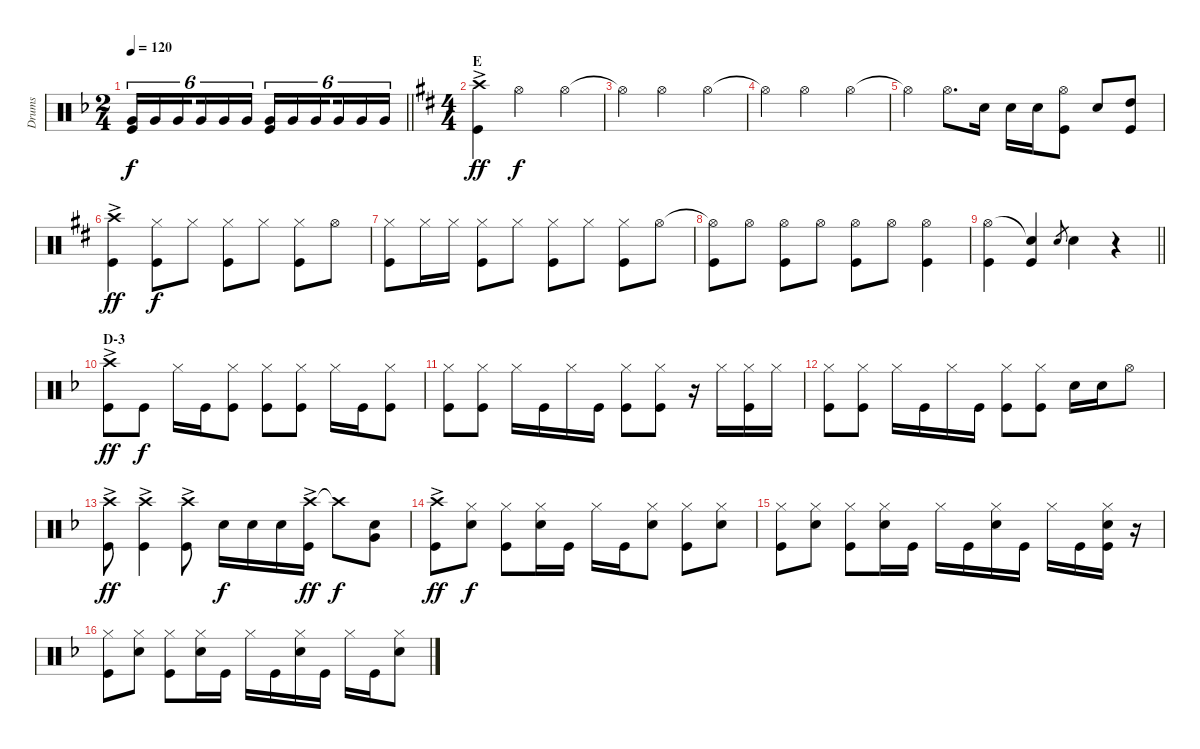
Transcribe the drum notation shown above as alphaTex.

\track ("Drums" "Drums") {instrument percussion}
\staff {score}
\articulation defaults
\ts (2 4)
\tempo 120
\clef neutral
\barLineRight lightlight
\ks f
("Kick (hit)" "Very Low Tom (hit)").16{tu (6 4) dy f} "Very Low Tom (hit)".16{tu (6 4)} "Very Low Tom (hit)".16{tu (6 4) beam splitsecondary} "Very Low Tom (hit)".16{tu (6 4)} "Very Low Tom (hit)".16{tu (6 4)} "Very Low Tom (hit)".16{tu (6 4)} ("Kick (hit)" "Very Low Tom (hit)").16{tu (6 4)} "Very Low Tom (hit)".16{tu (6 4)} "Very Low Tom (hit)".16{tu (6 4) beam splitsecondary} "Very Low Tom (hit)".16{tu (6 4)} "Very Low Tom (hit)".16{tu (6 4)} "Very Low Tom (hit)".16{tu (6 4)} |
\ts (4 4)
\section ("" "E")
\ks d
("Kick (hit)" "Crash high (hit)"{ac}).4{dy ff} "Hi-Hat (open)".2{dy f} "Hi-Hat (open)".4 |
"Hi-Hat (open)"{t}.4 "Hi-Hat (open)".2 "Hi-Hat (open)".4 |
"Hi-Hat (open)"{t}.4 "Hi-Hat (open)".2 "Hi-Hat (open)".4 |
"Hi-Hat (open)"{t}.4 "Hi-Hat (open)".8{d} "Snare (hit) 2".16 "Snare (hit) 2".16 "Snare (hit) 2".16 ("Hi-Hat (open)" "Kick (hit)").8 "Snare (hit) 2".8 ("High Tom (hit)" "Kick (hit)").8 |
("Crash high (hit)"{ac} "Kick (hit)").4{dy ff} ("Hi-Hat (closed)" "Kick (hit)").8{dy f} "Hi-Hat (closed)".8 ("Hi-Hat (closed)" "Kick (hit)").8 "Hi-Hat (closed)".8 ("Hi-Hat (closed)" "Kick (hit)").8 "Hi-Hat (open)".8 |
("Hi-Hat (closed)" "Kick (hit)").8 "Hi-Hat (closed)".16 "Hi-Hat (closed)".16 ("Hi-Hat (closed)" "Kick (hit)").8 "Hi-Hat (closed)".8 ("Hi-Hat (closed)" "Kick (hit)").8 "Hi-Hat (closed)".8 ("Hi-Hat (closed)" "Kick (hit)").8 "Hi-Hat (open)".8 |
("Hi-Hat (open)"{t} "Kick (hit)").8 "Hi-Hat (open)".8 ("Kick (hit)" "Hi-Hat (open)").8 "Hi-Hat (open)".8 ("Hi-Hat (open)" "Kick (hit)").8 "Hi-Hat (open)".8 ("Hi-Hat (open)" "Kick (hit)").4 |
\barLineRight lightlight
("Hi-Hat (open)" "Kick (hit)").4 ("Snare (hit)"{t} "Kick (hit)").4 "Snare (hit) 2".8{gr} "Snare (hit) 2".4 r.4 |
\section ("" "D-3")
\ks f
("Crash high (hit)"{ac} "Kick (hit)").8{dy ff} "Kick (hit)".8{dy f} "Hi-Hat (closed)".16 "Kick (hit)".16 ("Kick (hit)" "Hi-Hat (closed)").8 ("Hi-Hat (closed)" "Kick (hit)").8 ("Hi-Hat (closed)" "Kick (hit)").8 "Hi-Hat (closed)".16 "Kick (hit)".16 ("Hi-Hat (closed)" "Kick (hit)").8 |
("Hi-Hat (closed)" "Kick (hit)").8 ("Hi-Hat (closed)" "Kick (hit)").8 "Hi-Hat (closed)".16 "Kick (hit)".16 "Hi-Hat (closed)".16 "Kick (hit)".16 ("Hi-Hat (closed)" "Kick (hit)").8 ("Hi-Hat (closed)" "Kick (hit)").8 r.16 "Hi-Hat (closed)".16 ("Hi-Hat (closed)" "Kick (hit)").16 "Hi-Hat (closed)".16 |
("Hi-Hat (closed)" "Kick (hit)").8 ("Hi-Hat (closed)" "Kick (hit)").8 "Hi-Hat (closed)".16 "Kick (hit)".16 "Hi-Hat (closed)".16 "Kick (hit)".16 ("Hi-Hat (closed)" "Kick (hit)").8 ("Hi-Hat (closed)" "Kick (hit)").8 "Snare (hit) 2".16 "Snare (hit) 2".16 "Hi-Hat (open)".8 |
("Crash high (hit)"{ac} "Kick (hit)").8{dy ff} ("Crash high (hit)"{ac} "Kick (hit)").4 ("Crash high (hit)"{ac} "Kick (hit)").8 "Snare (hit) 2".16{dy f} "Snare (hit) 2".16 "Snare (hit) 2".16 ("Crash high (hit)"{ac} "Kick (hit)").16{dy ff} "Crash high (hit)"{t}.8{dy f} ("Snare (hit) 2" "Very Low Tom (hit)").8 |
("Crash high (hit)"{ac} "Kick (hit)").8{dy ff} ("Hi-Hat (closed)" "Snare (hit) 2").8{dy f} ("Hi-Hat (closed)" "Kick (hit)").8 ("Hi-Hat (closed)" "Snare (hit) 2").16 "Kick (hit)".16 "Hi-Hat (closed)".16 "Kick (hit)".16 ("Hi-Hat (closed)" "Snare (hit) 2").8 ("Hi-Hat (closed)" "Kick (hit)").8 ("Hi-Hat (closed)" "Snare (hit) 2").8 |
("Hi-Hat (closed)" "Kick (hit)").8 ("Hi-Hat (closed)" "Snare (hit) 2").8 ("Hi-Hat (closed)" "Kick (hit)").8 ("Hi-Hat (closed)" "Snare (hit) 2").16 "Kick (hit)".16 "Hi-Hat (closed)".16 "Kick (hit)".16 ("Hi-Hat (closed)" "Snare (hit) 2").16 "Kick (hit)".16 "Hi-Hat (closed)".16 "Kick (hit)".16 ("Hi-Hat (closed)" "Snare (hit) 2" "Kick (hit)").16 r.16 |
("Hi-Hat (closed)" "Kick (hit)").8 ("Hi-Hat (closed)" "Snare (hit) 2").8 ("Hi-Hat (closed)" "Kick (hit)").8 ("Hi-Hat (closed)" "Snare (hit) 2").16 "Kick (hit)".16 "Hi-Hat (closed)".16 "Kick (hit)".16 ("Hi-Hat (closed)" "Snare (hit) 2").16 "Kick (hit)".16 "Hi-Hat (closed)".16 "Kick (hit)".16 ("Hi-Hat (closed)" "Snare (hit) 2").8
